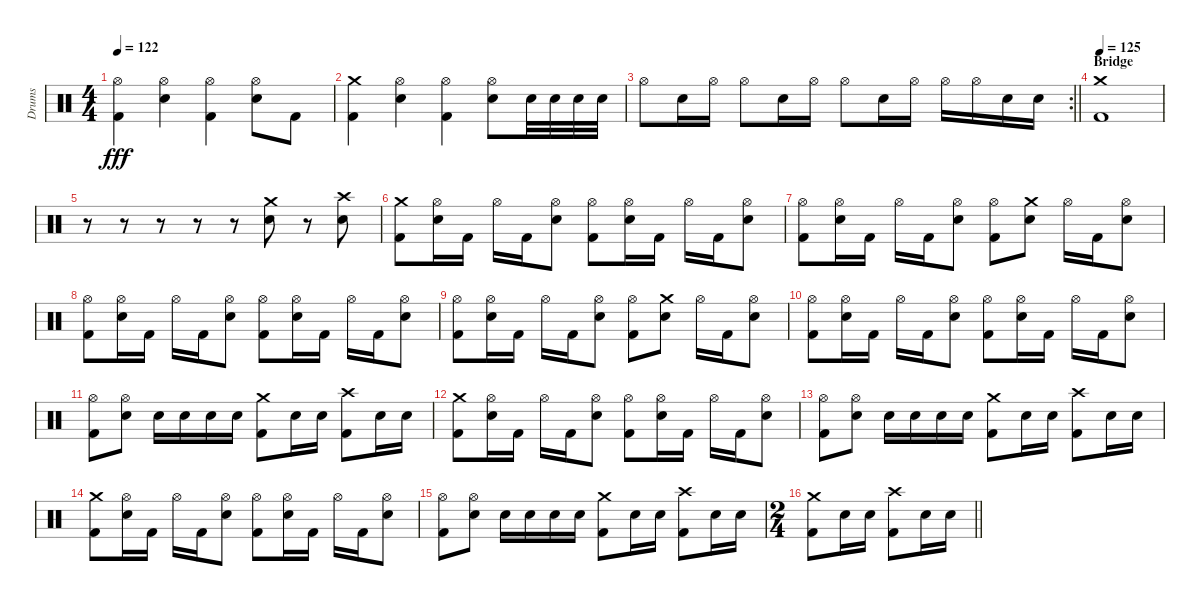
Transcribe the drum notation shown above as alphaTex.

\track ("Drums" "Drums") {instrument percussion}
\staff {score}
\articulation defaults
\ts (4 4)
\tempo 122
\clef neutral
\ks c
("Hi-Hat (open)" "Kick (hit) 2").4{dy fff} ("Hi-Hat (open)" "Electric Snare (hit)").4 ("Hi-Hat (open)" "Kick (hit) 2").4 ("Hi-Hat (open)" "Electric Snare (hit)").8 "Kick (hit) 2".8 |
("Crash medium (hit)" "Kick (hit) 2").4 ("Hi-Hat (open)" "Electric Snare (hit)").4 ("Hi-Hat (open)" "Kick (hit) 2").4 ("Hi-Hat (open)" "Electric Snare (hit)").8 "Electric Snare (hit)".32 "Electric Snare (hit)".32 "Electric Snare (hit)".32 "Electric Snare (hit)".32 |
\rc 2
\barLineRight lightlight "Hi-Hat (open)".8 "Electric Snare (hit)".16 "Hi-Hat (open)".16 "Hi-Hat (open)".8 "Electric Snare (hit)".16 "Hi-Hat (open)".16 "Hi-Hat (open)".8 "Electric Snare (hit)".16 "Hi-Hat (open)".16 "Hi-Hat (open)".16 "Hi-Hat (open)".16 "Electric Snare (hit)".16 "Electric Snare (hit)".16
|
\section ("" "Bridge")
\tempo 125
("Crash medium (hit)" "Kick (hit) 2").1 |
r.8 r.8 r.8 r.8 r.8 ("Crash medium (hit)" "Electric Snare (hit)").8 r.8 ("Crash high (hit)" "Electric Snare (hit)").8 |
("Crash medium (hit)" "Kick (hit) 2").8 ("Hi-Hat (open)" "Electric Snare (hit)").16 "Kick (hit) 2".16 "Hi-Hat (open)".16 "Kick (hit) 2".16 ("Hi-Hat (open)" "Electric Snare (hit)").8 ("Hi-Hat (open)" "Kick (hit) 2").8 ("Hi-Hat (open)" "Electric Snare (hit)").16 "Kick (hit) 2".16 "Hi-Hat (open)".16 "Kick (hit) 2".16 ("Hi-Hat (open)" "Electric Snare (hit)").8 |
("Hi-Hat (open)" "Kick (hit) 2").8 ("Hi-Hat (open)" "Electric Snare (hit)").16 "Kick (hit) 2".16 "Hi-Hat (open)".16 "Kick (hit) 2".16 ("Hi-Hat (open)" "Electric Snare (hit)").8 ("Hi-Hat (open)" "Kick (hit) 2").8 ("Crash medium (hit)" "Electric Snare (hit)").8 "Hi-Hat (open)".16 "Kick (hit) 2".16 ("Hi-Hat (open)" "Electric Snare (hit)").8 |
("Hi-Hat (open)" "Kick (hit) 2").8 ("Hi-Hat (open)" "Electric Snare (hit)").16 "Kick (hit) 2".16 "Hi-Hat (open)".16 "Kick (hit) 2".16 ("Hi-Hat (open)" "Electric Snare (hit)").8 ("Hi-Hat (open)" "Kick (hit) 2").8 ("Hi-Hat (open)" "Electric Snare (hit)").16 "Kick (hit) 2".16 "Hi-Hat (open)".16 "Kick (hit) 2".16 ("Hi-Hat (open)" "Electric Snare (hit)").8 |
("Hi-Hat (open)" "Kick (hit) 2").8 ("Hi-Hat (open)" "Electric Snare (hit)").16 "Kick (hit) 2".16 "Hi-Hat (open)".16 "Kick (hit) 2".16 ("Hi-Hat (open)" "Electric Snare (hit)").8 ("Hi-Hat (open)" "Kick (hit) 2").8 ("Crash medium (hit)" "Electric Snare (hit)").8 "Hi-Hat (open)".16 "Kick (hit) 2".16 ("Hi-Hat (open)" "Electric Snare (hit)").8 |
("Hi-Hat (open)" "Kick (hit) 2").8 ("Hi-Hat (open)" "Electric Snare (hit)").16 "Kick (hit) 2".16 "Hi-Hat (open)".16 "Kick (hit) 2".16 ("Hi-Hat (open)" "Electric Snare (hit)").8 ("Hi-Hat (open)" "Kick (hit) 2").8 ("Hi-Hat (open)" "Electric Snare (hit)").16 "Kick (hit) 2".16 "Hi-Hat (open)".16 "Kick (hit) 2".16 ("Hi-Hat (open)" "Electric Snare (hit)").8 |
("Hi-Hat (open)" "Kick (hit) 2").8 ("Hi-Hat (open)" "Electric Snare (hit)").8 "Electric Snare (hit)".16 "Electric Snare (hit)".16 "Electric Snare (hit)".16 "Electric Snare (hit)".16 ("Crash medium (hit)" "Kick (hit) 2").8 "Electric Snare (hit)".16 "Electric Snare (hit)".16 ("Crash high (hit)" "Kick (hit) 2").8 "Electric Snare (hit)".16 "Electric Snare (hit)".16 |
("Crash medium (hit)" "Kick (hit) 2").8 ("Hi-Hat (open)" "Electric Snare (hit)").16 "Kick (hit) 2".16 "Hi-Hat (open)".16 "Kick (hit) 2".16 ("Hi-Hat (open)" "Electric Snare (hit)").8 ("Hi-Hat (open)" "Kick (hit) 2").8 ("Hi-Hat (open)" "Electric Snare (hit)").16 "Kick (hit) 2".16 "Hi-Hat (open)".16 "Kick (hit) 2".16 ("Hi-Hat (open)" "Electric Snare (hit)").8 |
("Hi-Hat (open)" "Kick (hit) 2").8 ("Hi-Hat (open)" "Electric Snare (hit)").8 "Electric Snare (hit)".16 "Electric Snare (hit)".16 "Electric Snare (hit)".16 "Electric Snare (hit)".16 ("Crash medium (hit)" "Kick (hit) 2").8 "Electric Snare (hit)".16 "Electric Snare (hit)".16 ("Crash high (hit)" "Kick (hit) 2").8 "Electric Snare (hit)".16 "Electric Snare (hit)".16 |
("Crash medium (hit)" "Kick (hit) 2").8 ("Hi-Hat (open)" "Electric Snare (hit)").16 "Kick (hit) 2".16 "Hi-Hat (open)".16 "Kick (hit) 2".16 ("Hi-Hat (open)" "Electric Snare (hit)").8 ("Hi-Hat (open)" "Kick (hit) 2").8 ("Hi-Hat (open)" "Electric Snare (hit)").16 "Kick (hit) 2".16 "Hi-Hat (open)".16 "Kick (hit) 2".16 ("Hi-Hat (open)" "Electric Snare (hit)").8 |
("Hi-Hat (open)" "Kick (hit) 2").8 ("Hi-Hat (open)" "Electric Snare (hit)").8 "Electric Snare (hit)".16 "Electric Snare (hit)".16 "Electric Snare (hit)".16 "Electric Snare (hit)".16 ("Crash medium (hit)" "Kick (hit) 2").8 "Electric Snare (hit)".16 "Electric Snare (hit)".16 ("Crash high (hit)" "Kick (hit) 2").8 "Electric Snare (hit)".16 "Electric Snare (hit)".16 |
\ts (2 4)
\barLineRight lightlight
("Crash medium (hit)" "Kick (hit) 2").8 "Electric Snare (hit)".16 "Electric Snare (hit)".16 ("Crash high (hit)" "Kick (hit) 2").8 "Electric Snare (hit)".16 "Electric Snare (hit)".16
